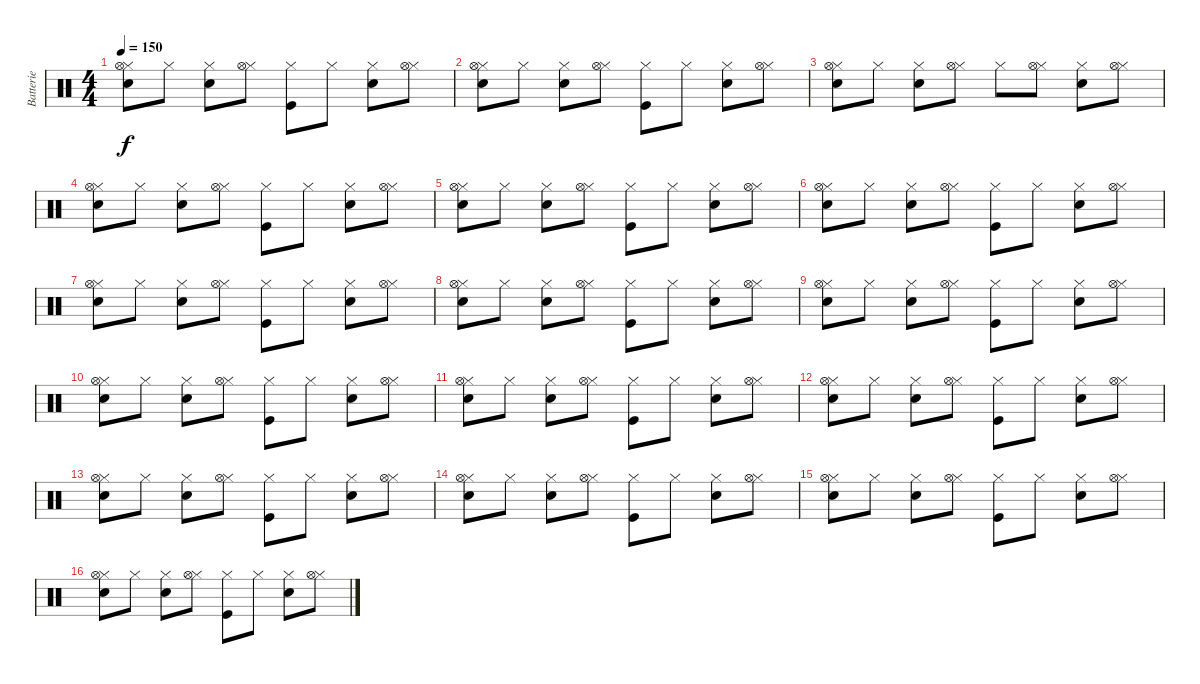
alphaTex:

\track ("Batterie" "Batterie") {instrument percussion}
\staff {score}
\articulation defaults
\ts (4 4)
\tempo 150
\clef neutral
\ks c
("Hi-Hat (closed)" "Hi-Hat (open)" "Electric Snare (hit)").8{dy f} "Hi-Hat (closed)".8 ("Hi-Hat (closed)" "Snare (hit) 2").8 ("Hi-Hat (closed)" "Hi-Hat (open)").8 ("Hi-Hat (closed)" "Kick (hit)").8 "Hi-Hat (closed)".8 ("Hi-Hat (closed)" "Snare (hit) 2").8 ("Hi-Hat (closed)" "Hi-Hat (open)").8 |
("Hi-Hat (closed)" "Hi-Hat (open)" "Electric Snare (hit)").8 "Hi-Hat (closed)".8 ("Hi-Hat (closed)" "Snare (hit) 2").8 ("Hi-Hat (closed)" "Hi-Hat (open)").8 ("Hi-Hat (closed)" "Kick (hit)").8 "Hi-Hat (closed)".8 ("Hi-Hat (closed)" "Snare (hit) 2").8 ("Hi-Hat (closed)" "Hi-Hat (open)").8 |
("Hi-Hat (closed)" "Hi-Hat (open)" "Electric Snare (hit)").8 "Hi-Hat (closed)".8 ("Hi-Hat (closed)" "Snare (hit) 2").8 ("Hi-Hat (closed)" "Hi-Hat (open)").8 "Hi-Hat (closed)".8 ("Hi-Hat (closed)" "Hi-Hat (open)").8 ("Hi-Hat (closed)" "Snare (hit) 2").8 ("Hi-Hat (closed)" "Hi-Hat (open)").8 |
("Hi-Hat (closed)" "Hi-Hat (open)" "Electric Snare (hit)").8 "Hi-Hat (closed)".8 ("Hi-Hat (closed)" "Snare (hit) 2").8 ("Hi-Hat (closed)" "Hi-Hat (open)").8 ("Hi-Hat (closed)" "Kick (hit)").8 "Hi-Hat (closed)".8 ("Hi-Hat (closed)" "Snare (hit) 2").8 ("Hi-Hat (closed)" "Hi-Hat (open)").8 |
("Hi-Hat (closed)" "Hi-Hat (open)" "Electric Snare (hit)").8 "Hi-Hat (closed)".8 ("Hi-Hat (closed)" "Snare (hit) 2").8 ("Hi-Hat (closed)" "Hi-Hat (open)").8 ("Hi-Hat (closed)" "Kick (hit)").8 "Hi-Hat (closed)".8 ("Hi-Hat (closed)" "Snare (hit) 2").8 ("Hi-Hat (closed)" "Hi-Hat (open)").8 |
("Hi-Hat (closed)" "Hi-Hat (open)" "Electric Snare (hit)").8 "Hi-Hat (closed)".8 ("Hi-Hat (closed)" "Snare (hit) 2").8 ("Hi-Hat (closed)" "Hi-Hat (open)").8 ("Hi-Hat (closed)" "Kick (hit)").8 "Hi-Hat (closed)".8 ("Hi-Hat (closed)" "Snare (hit) 2").8 ("Hi-Hat (closed)" "Hi-Hat (open)").8 |
("Hi-Hat (closed)" "Hi-Hat (open)" "Electric Snare (hit)").8 "Hi-Hat (closed)".8 ("Hi-Hat (closed)" "Snare (hit) 2").8 ("Hi-Hat (closed)" "Hi-Hat (open)").8 ("Hi-Hat (closed)" "Kick (hit)").8 "Hi-Hat (closed)".8 ("Hi-Hat (closed)" "Snare (hit) 2").8 ("Hi-Hat (closed)" "Hi-Hat (open)").8 |
("Hi-Hat (closed)" "Hi-Hat (open)" "Electric Snare (hit)").8 "Hi-Hat (closed)".8 ("Hi-Hat (closed)" "Snare (hit) 2").8 ("Hi-Hat (closed)" "Hi-Hat (open)").8 ("Hi-Hat (closed)" "Kick (hit)").8 "Hi-Hat (closed)".8 ("Hi-Hat (closed)" "Snare (hit) 2").8 ("Hi-Hat (closed)" "Hi-Hat (open)").8 |
("Hi-Hat (closed)" "Hi-Hat (open)" "Electric Snare (hit)").8 "Hi-Hat (closed)".8 ("Hi-Hat (closed)" "Snare (hit) 2").8 ("Hi-Hat (closed)" "Hi-Hat (open)").8 ("Hi-Hat (closed)" "Kick (hit)").8 "Hi-Hat (closed)".8 ("Hi-Hat (closed)" "Snare (hit) 2").8 ("Hi-Hat (closed)" "Hi-Hat (open)").8 |
("Hi-Hat (closed)" "Hi-Hat (open)" "Electric Snare (hit)").8 "Hi-Hat (closed)".8 ("Hi-Hat (closed)" "Snare (hit) 2").8 ("Hi-Hat (closed)" "Hi-Hat (open)").8 ("Hi-Hat (closed)" "Kick (hit)").8 "Hi-Hat (closed)".8 ("Hi-Hat (closed)" "Snare (hit) 2").8 ("Hi-Hat (closed)" "Hi-Hat (open)").8 |
("Hi-Hat (closed)" "Hi-Hat (open)" "Electric Snare (hit)").8 "Hi-Hat (closed)".8 ("Hi-Hat (closed)" "Snare (hit) 2").8 ("Hi-Hat (closed)" "Hi-Hat (open)").8 ("Hi-Hat (closed)" "Kick (hit)").8 "Hi-Hat (closed)".8 ("Hi-Hat (closed)" "Snare (hit) 2").8 ("Hi-Hat (closed)" "Hi-Hat (open)").8 |
("Hi-Hat (closed)" "Hi-Hat (open)" "Electric Snare (hit)").8 "Hi-Hat (closed)".8 ("Hi-Hat (closed)" "Snare (hit) 2").8 ("Hi-Hat (closed)" "Hi-Hat (open)").8 ("Hi-Hat (closed)" "Kick (hit)").8 "Hi-Hat (closed)".8 ("Hi-Hat (closed)" "Snare (hit) 2").8 ("Hi-Hat (closed)" "Hi-Hat (open)").8 |
("Hi-Hat (closed)" "Hi-Hat (open)" "Electric Snare (hit)").8 "Hi-Hat (closed)".8 ("Hi-Hat (closed)" "Snare (hit) 2").8 ("Hi-Hat (closed)" "Hi-Hat (open)").8 ("Hi-Hat (closed)" "Kick (hit)").8 "Hi-Hat (closed)".8 ("Hi-Hat (closed)" "Snare (hit) 2").8 ("Hi-Hat (closed)" "Hi-Hat (open)").8 |
("Hi-Hat (closed)" "Hi-Hat (open)" "Electric Snare (hit)").8 "Hi-Hat (closed)".8 ("Hi-Hat (closed)" "Snare (hit) 2").8 ("Hi-Hat (closed)" "Hi-Hat (open)").8 ("Hi-Hat (closed)" "Kick (hit)").8 "Hi-Hat (closed)".8 ("Hi-Hat (closed)" "Snare (hit) 2").8 ("Hi-Hat (closed)" "Hi-Hat (open)").8 |
("Hi-Hat (closed)" "Hi-Hat (open)" "Electric Snare (hit)").8 "Hi-Hat (closed)".8 ("Hi-Hat (closed)" "Snare (hit) 2").8 ("Hi-Hat (closed)" "Hi-Hat (open)").8 ("Hi-Hat (closed)" "Kick (hit)").8 "Hi-Hat (closed)".8 ("Hi-Hat (closed)" "Snare (hit) 2").8 ("Hi-Hat (closed)" "Hi-Hat (open)").8 |
("Hi-Hat (closed)" "Hi-Hat (open)" "Electric Snare (hit)").8 "Hi-Hat (closed)".8 ("Hi-Hat (closed)" "Snare (hit) 2").8 ("Hi-Hat (closed)" "Hi-Hat (open)").8 ("Hi-Hat (closed)" "Kick (hit)").8 "Hi-Hat (closed)".8 ("Hi-Hat (closed)" "Snare (hit) 2").8 ("Hi-Hat (closed)" "Hi-Hat (open)").8
